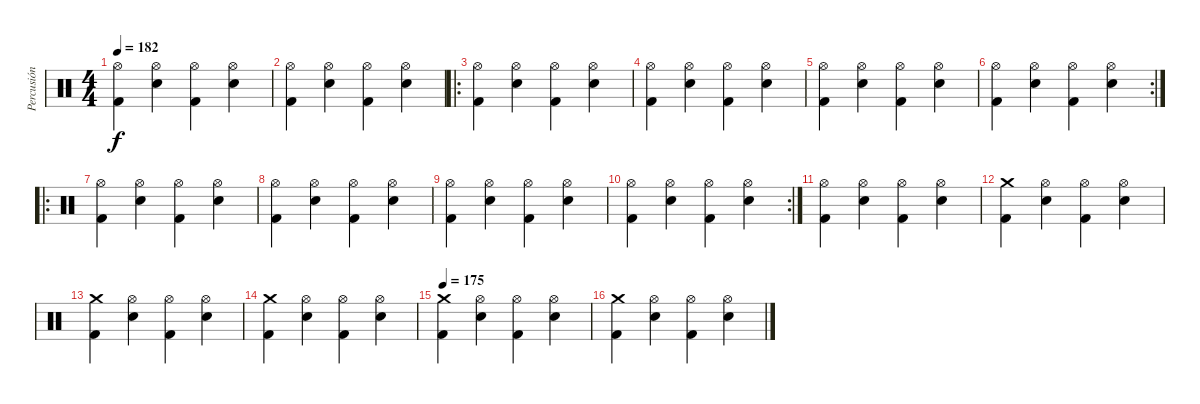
\track ("Percusión" "Percusión") {instrument percussion}
\staff {score}
\articulation defaults
\ts (4 4)
\tempo 182
\clef neutral
\ks c
("Kick (hit) 2" "Hi-Hat (open)").4{dy f} ("Electric Snare (hit)" "Hi-Hat (open)").4 ("Kick (hit) 2" "Hi-Hat (open)").4 ("Electric Snare (hit)" "Hi-Hat (open)").4 |
("Kick (hit) 2" "Hi-Hat (open)").4 ("Electric Snare (hit)" "Hi-Hat (open)").4 ("Kick (hit) 2" "Hi-Hat (open)").4 ("Electric Snare (hit)" "Hi-Hat (open)").4 |
\ro
("Kick (hit) 2" "Hi-Hat (open)").4 ("Electric Snare (hit)" "Hi-Hat (open)").4 ("Kick (hit) 2" "Hi-Hat (open)").4 ("Electric Snare (hit)" "Hi-Hat (open)").4 |
("Kick (hit) 2" "Hi-Hat (open)").4 ("Electric Snare (hit)" "Hi-Hat (open)").4 ("Kick (hit) 2" "Hi-Hat (open)").4 ("Electric Snare (hit)" "Hi-Hat (open)").4 |
("Kick (hit) 2" "Hi-Hat (open)").4 ("Electric Snare (hit)" "Hi-Hat (open)").4 ("Kick (hit) 2" "Hi-Hat (open)").4 ("Electric Snare (hit)" "Hi-Hat (open)").4 |
\rc 2
("Kick (hit) 2" "Hi-Hat (open)").4 ("Electric Snare (hit)" "Hi-Hat (open)").4 ("Kick (hit) 2" "Hi-Hat (open)").4 ("Electric Snare (hit)" "Hi-Hat (open)").4 |
\ro
("Kick (hit) 2" "Hi-Hat (open)").4 ("Electric Snare (hit)" "Hi-Hat (open)").4 ("Kick (hit) 2" "Hi-Hat (open)").4 ("Electric Snare (hit)" "Hi-Hat (open)").4 |
("Kick (hit) 2" "Hi-Hat (open)").4 ("Electric Snare (hit)" "Hi-Hat (open)").4 ("Kick (hit) 2" "Hi-Hat (open)").4 ("Electric Snare (hit)" "Hi-Hat (open)").4 |
("Kick (hit) 2" "Hi-Hat (open)").4 ("Electric Snare (hit)" "Hi-Hat (open)").4 ("Kick (hit) 2" "Hi-Hat (open)").4 ("Electric Snare (hit)" "Hi-Hat (open)").4 |
\rc 2
("Kick (hit) 2" "Hi-Hat (open)").4 ("Electric Snare (hit)" "Hi-Hat (open)").4 ("Kick (hit) 2" "Hi-Hat (open)").4 ("Electric Snare (hit)" "Hi-Hat (open)").4 |
("Kick (hit) 2" "Hi-Hat (open)").4 ("Electric Snare (hit)" "Hi-Hat (open)").4 ("Kick (hit) 2" "Hi-Hat (open)").4 ("Electric Snare (hit)" "Hi-Hat (open)").4 |
("Kick (hit) 2" "Crash medium (hit)").4 ("Electric Snare (hit)" "Hi-Hat (open)").4 ("Kick (hit) 2" "Hi-Hat (open)").4 ("Electric Snare (hit)" "Hi-Hat (open)").4 |
("Kick (hit) 2" "Crash medium (hit)").4 ("Electric Snare (hit)" "Hi-Hat (open)").4 ("Kick (hit) 2" "Hi-Hat (open)").4 ("Electric Snare (hit)" "Hi-Hat (open)").4 |
("Kick (hit) 2" "Crash medium (hit)").4 ("Electric Snare (hit)" "Hi-Hat (open)").4 ("Kick (hit) 2" "Hi-Hat (open)").4 ("Electric Snare (hit)" "Hi-Hat (open)").4 |
\tempo 175
("Kick (hit) 2" "Crash medium (hit)").4 ("Electric Snare (hit)" "Hi-Hat (open)").4 ("Kick (hit) 2" "Hi-Hat (open)").4 ("Electric Snare (hit)" "Hi-Hat (open)").4 |
("Kick (hit) 2" "Crash medium (hit)").4 ("Electric Snare (hit)" "Hi-Hat (open)").4 ("Kick (hit) 2" "Hi-Hat (open)").4 ("Electric Snare (hit)" "Hi-Hat (open)").4
